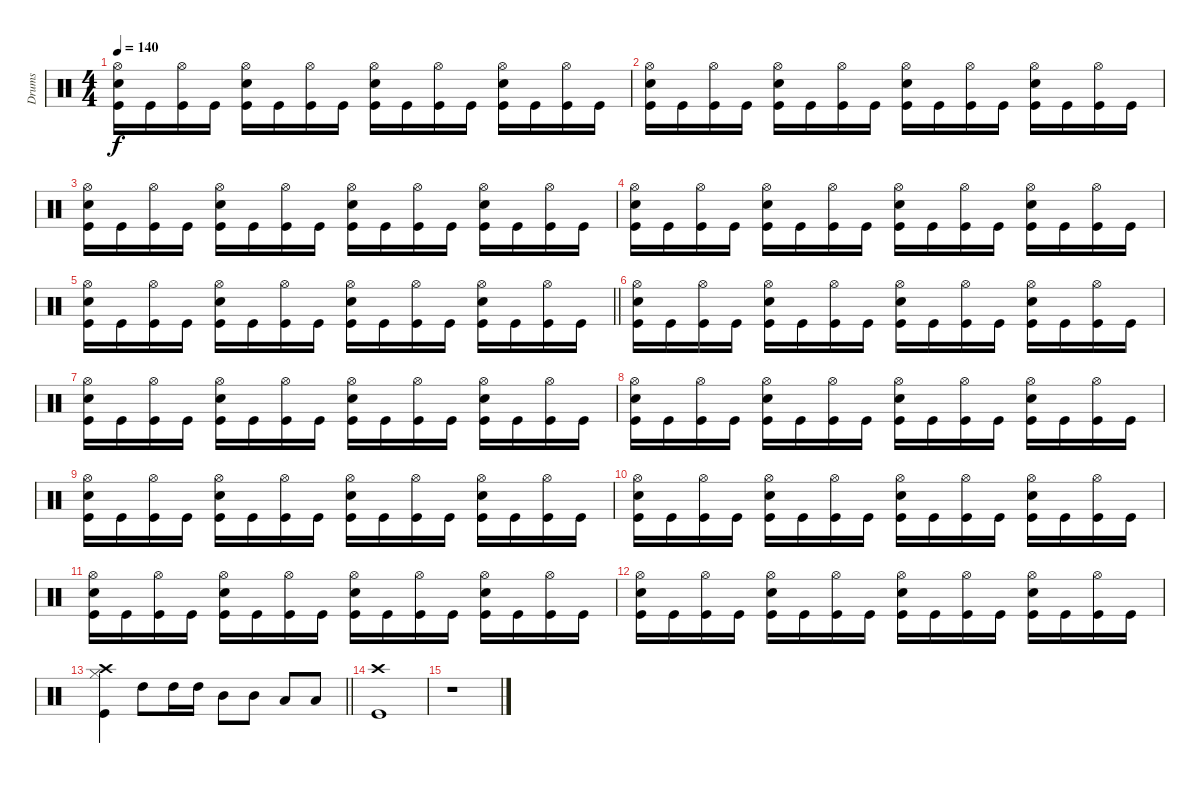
\track ("Drums" "Drums") {instrument percussion}
\staff {score}
\articulation defaults
\ts (4 4)
\tempo 140
\clef neutral
\ks c
("Snare (hit) 2" "Hi-Hat (open)" "Kick (hit)").16{dy f} "Kick (hit)".16 ("Hi-Hat (open)" "Kick (hit)").16 "Kick (hit)".16 ("Snare (hit) 2" "Hi-Hat (open)" "Kick (hit)").16 "Kick (hit)".16 ("Hi-Hat (open)" "Kick (hit)").16 "Kick (hit)".16 ("Snare (hit) 2" "Hi-Hat (open)" "Kick (hit)").16 "Kick (hit)".16 ("Hi-Hat (open)" "Kick (hit)").16 "Kick (hit)".16 ("Snare (hit) 2" "Hi-Hat (open)" "Kick (hit)").16 "Kick (hit)".16 ("Hi-Hat (open)" "Kick (hit)").16 "Kick (hit)".16 |
("Snare (hit) 2" "Hi-Hat (open)" "Kick (hit)").16 "Kick (hit)".16 ("Hi-Hat (open)" "Kick (hit)").16 "Kick (hit)".16 ("Snare (hit) 2" "Hi-Hat (open)" "Kick (hit)").16 "Kick (hit)".16 ("Hi-Hat (open)" "Kick (hit)").16 "Kick (hit)".16 ("Snare (hit) 2" "Hi-Hat (open)" "Kick (hit)").16 "Kick (hit)".16 ("Hi-Hat (open)" "Kick (hit)").16 "Kick (hit)".16 ("Snare (hit) 2" "Hi-Hat (open)" "Kick (hit)").16 "Kick (hit)".16 ("Hi-Hat (open)" "Kick (hit)").16 "Kick (hit)".16 |
("Snare (hit) 2" "Hi-Hat (open)" "Kick (hit)").16 "Kick (hit)".16 ("Hi-Hat (open)" "Kick (hit)").16 "Kick (hit)".16 ("Snare (hit) 2" "Hi-Hat (open)" "Kick (hit)").16 "Kick (hit)".16 ("Hi-Hat (open)" "Kick (hit)").16 "Kick (hit)".16 ("Snare (hit) 2" "Hi-Hat (open)" "Kick (hit)").16 "Kick (hit)".16 ("Hi-Hat (open)" "Kick (hit)").16 "Kick (hit)".16 ("Snare (hit) 2" "Hi-Hat (open)" "Kick (hit)").16 "Kick (hit)".16 ("Hi-Hat (open)" "Kick (hit)").16 "Kick (hit)".16 |
("Snare (hit) 2" "Hi-Hat (open)" "Kick (hit)").16 "Kick (hit)".16 ("Hi-Hat (open)" "Kick (hit)").16 "Kick (hit)".16 ("Snare (hit) 2" "Hi-Hat (open)" "Kick (hit)").16 "Kick (hit)".16 ("Hi-Hat (open)" "Kick (hit)").16 "Kick (hit)".16 ("Snare (hit) 2" "Hi-Hat (open)" "Kick (hit)").16 "Kick (hit)".16 ("Hi-Hat (open)" "Kick (hit)").16 "Kick (hit)".16 ("Snare (hit) 2" "Hi-Hat (open)" "Kick (hit)").16 "Kick (hit)".16 ("Hi-Hat (open)" "Kick (hit)").16 "Kick (hit)".16 |
\barLineRight lightlight
("Snare (hit) 2" "Hi-Hat (open)" "Kick (hit)").16 "Kick (hit)".16 ("Hi-Hat (open)" "Kick (hit)").16 "Kick (hit)".16 ("Snare (hit) 2" "Hi-Hat (open)" "Kick (hit)").16 "Kick (hit)".16 ("Hi-Hat (open)" "Kick (hit)").16 "Kick (hit)".16 ("Snare (hit) 2" "Hi-Hat (open)" "Kick (hit)").16 "Kick (hit)".16 ("Hi-Hat (open)" "Kick (hit)").16 "Kick (hit)".16 ("Snare (hit) 2" "Hi-Hat (open)" "Kick (hit)").16 "Kick (hit)".16 ("Hi-Hat (open)" "Kick (hit)").16 "Kick (hit)".16 |
("Snare (hit) 2" "Hi-Hat (open)" "Kick (hit)").16 "Kick (hit)".16 ("Hi-Hat (open)" "Kick (hit)").16 "Kick (hit)".16 ("Snare (hit) 2" "Hi-Hat (open)" "Kick (hit)").16 "Kick (hit)".16 ("Hi-Hat (open)" "Kick (hit)").16 "Kick (hit)".16 ("Snare (hit) 2" "Hi-Hat (open)" "Kick (hit)").16 "Kick (hit)".16 ("Hi-Hat (open)" "Kick (hit)").16 "Kick (hit)".16 ("Snare (hit) 2" "Hi-Hat (open)" "Kick (hit)").16 "Kick (hit)".16 ("Hi-Hat (open)" "Kick (hit)").16 "Kick (hit)".16 |
("Snare (hit) 2" "Hi-Hat (open)" "Kick (hit)").16 "Kick (hit)".16 ("Hi-Hat (open)" "Kick (hit)").16 "Kick (hit)".16 ("Snare (hit) 2" "Hi-Hat (open)" "Kick (hit)").16 "Kick (hit)".16 ("Hi-Hat (open)" "Kick (hit)").16 "Kick (hit)".16 ("Snare (hit) 2" "Hi-Hat (open)" "Kick (hit)").16 "Kick (hit)".16 ("Hi-Hat (open)" "Kick (hit)").16 "Kick (hit)".16 ("Snare (hit) 2" "Hi-Hat (open)" "Kick (hit)").16 "Kick (hit)".16 ("Hi-Hat (open)" "Kick (hit)").16 "Kick (hit)".16 |
("Snare (hit) 2" "Hi-Hat (open)" "Kick (hit)").16 "Kick (hit)".16 ("Hi-Hat (open)" "Kick (hit)").16 "Kick (hit)".16 ("Snare (hit) 2" "Hi-Hat (open)" "Kick (hit)").16 "Kick (hit)".16 ("Hi-Hat (open)" "Kick (hit)").16 "Kick (hit)".16 ("Snare (hit) 2" "Hi-Hat (open)" "Kick (hit)").16 "Kick (hit)".16 ("Hi-Hat (open)" "Kick (hit)").16 "Kick (hit)".16 ("Snare (hit) 2" "Hi-Hat (open)" "Kick (hit)").16 "Kick (hit)".16 ("Hi-Hat (open)" "Kick (hit)").16 "Kick (hit)".16 |
("Snare (hit) 2" "Hi-Hat (open)" "Kick (hit)").16 "Kick (hit)".16 ("Hi-Hat (open)" "Kick (hit)").16 "Kick (hit)".16 ("Snare (hit) 2" "Hi-Hat (open)" "Kick (hit)").16 "Kick (hit)".16 ("Hi-Hat (open)" "Kick (hit)").16 "Kick (hit)".16 ("Snare (hit) 2" "Hi-Hat (open)" "Kick (hit)").16 "Kick (hit)".16 ("Hi-Hat (open)" "Kick (hit)").16 "Kick (hit)".16 ("Snare (hit) 2" "Hi-Hat (open)" "Kick (hit)").16 "Kick (hit)".16 ("Hi-Hat (open)" "Kick (hit)").16 "Kick (hit)".16 |
("Snare (hit) 2" "Hi-Hat (open)" "Kick (hit)").16 "Kick (hit)".16 ("Hi-Hat (open)" "Kick (hit)").16 "Kick (hit)".16 ("Snare (hit) 2" "Hi-Hat (open)" "Kick (hit)").16 "Kick (hit)".16 ("Hi-Hat (open)" "Kick (hit)").16 "Kick (hit)".16 ("Snare (hit) 2" "Hi-Hat (open)" "Kick (hit)").16 "Kick (hit)".16 ("Hi-Hat (open)" "Kick (hit)").16 "Kick (hit)".16 ("Snare (hit) 2" "Hi-Hat (open)" "Kick (hit)").16 "Kick (hit)".16 ("Hi-Hat (open)" "Kick (hit)").16 "Kick (hit)".16 |
("Snare (hit) 2" "Hi-Hat (open)" "Kick (hit)").16 "Kick (hit)".16 ("Hi-Hat (open)" "Kick (hit)").16 "Kick (hit)".16 ("Snare (hit) 2" "Hi-Hat (open)" "Kick (hit)").16 "Kick (hit)".16 ("Hi-Hat (open)" "Kick (hit)").16 "Kick (hit)".16 ("Snare (hit) 2" "Hi-Hat (open)" "Kick (hit)").16 "Kick (hit)".16 ("Hi-Hat (open)" "Kick (hit)").16 "Kick (hit)".16 ("Snare (hit) 2" "Hi-Hat (open)" "Kick (hit)").16 "Kick (hit)".16 ("Hi-Hat (open)" "Kick (hit)").16 "Kick (hit)".16 |
("Snare (hit) 2" "Hi-Hat (open)" "Kick (hit)").16 "Kick (hit)".16 ("Hi-Hat (open)" "Kick (hit)").16 "Kick (hit)".16 ("Snare (hit) 2" "Hi-Hat (open)" "Kick (hit)").16 "Kick (hit)".16 ("Hi-Hat (open)" "Kick (hit)").16 "Kick (hit)".16 ("Snare (hit) 2" "Hi-Hat (open)" "Kick (hit)").16 "Kick (hit)".16 ("Hi-Hat (open)" "Kick (hit)").16 "Kick (hit)".16 ("Snare (hit) 2" "Hi-Hat (open)" "Kick (hit)").16 "Kick (hit)".16 ("Hi-Hat (open)" "Kick (hit)").16 "Kick (hit)".16 |
\barLineRight lightlight
("Crash high (hit)" "Hi-Hat (closed)" "Kick (hit)").4 "High Tom (hit)".8 "High Tom (hit)".16 "High Tom (hit)".16 "Mid Tom (hit)".8 "Mid Tom (hit)".8 "Low Tom (hit)".8 "Low Tom (hit)".8 |
("Crash high (hit)" "Kick (hit)").1 |
r.1
